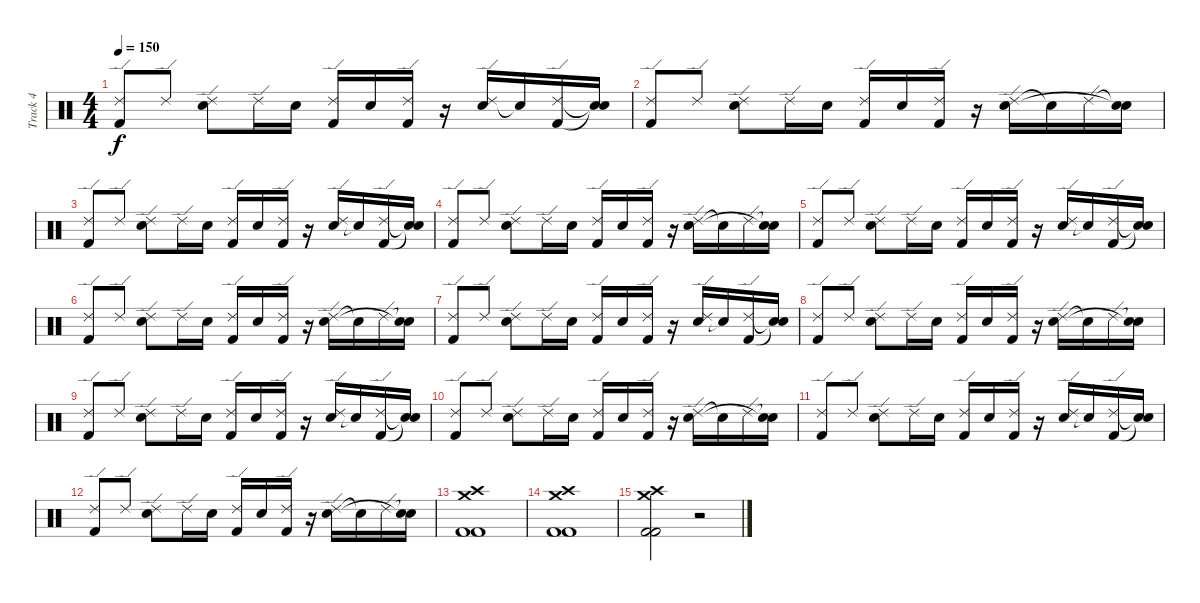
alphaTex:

\track ("Track 4" "Track 4") {instrument percussion}
\staff {score}
\articulation defaults
\ts (4 4)
\tempo 150
\clef neutral
\ks c
("Ride (edge) 2" "Kick (hit) 2").8{dy f} "Ride (edge) 2".8 ("Ride (edge) 2" "Snare (hit) 2").8 "Ride (edge) 2".16 "Snare (hit) 2".16 ("Ride (edge) 2" "Kick (hit) 2").16 "Snare (hit) 2".16 ("Ride (edge) 2" "Kick (hit) 2").16 r.16 ("Ride (edge) 2" "Snare (hit) 2").16 "Snare (hit)"{t}.16 ("Ride (edge) 2" "Kick (hit) 2").16 ("Snare (hit)"{t} "Snare (hit)"{t}).16 |
("Ride (edge) 2" "Kick (hit) 2").8 "Ride (edge) 2".8 ("Ride (edge) 2" "Snare (hit) 2").8 "Ride (edge) 2".16 "Snare (hit) 2".16 ("Ride (edge) 2" "Kick (hit) 2").16 "Snare (hit) 2".16 ("Ride (edge) 2" "Kick (hit) 2").16 r.16 ("Ride (edge) 2" "Snare (hit) 2").16 "Snare (hit)"{t}.16 "Ride (edge) 2".16 ("Snare (hit)"{t} "Snare (hit)"{t}).16 |
("Ride (edge) 2" "Kick (hit) 2").8 "Ride (edge) 2".8 ("Ride (edge) 2" "Snare (hit) 2").8 "Ride (edge) 2".16 "Snare (hit) 2".16 ("Ride (edge) 2" "Kick (hit) 2").16 "Snare (hit) 2".16 ("Ride (edge) 2" "Kick (hit) 2").16 r.16 ("Ride (edge) 2" "Snare (hit) 2").16 "Snare (hit)"{t}.16 ("Ride (edge) 2" "Kick (hit) 2").16 ("Snare (hit)"{t} "Snare (hit)"{t}).16 |
("Ride (edge) 2" "Kick (hit) 2").8 "Ride (edge) 2".8 ("Ride (edge) 2" "Snare (hit) 2").8 "Ride (edge) 2".16 "Snare (hit) 2".16 ("Ride (edge) 2" "Kick (hit) 2").16 "Snare (hit) 2".16 ("Ride (edge) 2" "Kick (hit) 2").16 r.16 ("Ride (edge) 2" "Snare (hit) 2").16 "Snare (hit)"{t}.16 "Ride (edge) 2".16 ("Snare (hit)"{t} "Snare (hit)"{t}).16 |
("Ride (edge) 2" "Kick (hit) 2").8 "Ride (edge) 2".8 ("Ride (edge) 2" "Snare (hit) 2").8 "Ride (edge) 2".16 "Snare (hit) 2".16 ("Ride (edge) 2" "Kick (hit) 2").16 "Snare (hit) 2".16 ("Ride (edge) 2" "Kick (hit) 2").16 r.16 ("Ride (edge) 2" "Snare (hit) 2").16 "Snare (hit)"{t}.16 ("Ride (edge) 2" "Kick (hit) 2").16 ("Snare (hit)"{t} "Snare (hit)"{t}).16 |
("Ride (edge) 2" "Kick (hit) 2").8 "Ride (edge) 2".8 ("Ride (edge) 2" "Snare (hit) 2").8 "Ride (edge) 2".16 "Snare (hit) 2".16 ("Ride (edge) 2" "Kick (hit) 2").16 "Snare (hit) 2".16 ("Ride (edge) 2" "Kick (hit) 2").16 r.16 ("Ride (edge) 2" "Snare (hit) 2").16 "Snare (hit)"{t}.16 "Ride (edge) 2".16 ("Snare (hit)"{t} "Snare (hit)"{t}).16 |
("Ride (edge) 2" "Kick (hit) 2").8 "Ride (edge) 2".8 ("Ride (edge) 2" "Snare (hit) 2").8 "Ride (edge) 2".16 "Snare (hit) 2".16 ("Ride (edge) 2" "Kick (hit) 2").16 "Snare (hit) 2".16 ("Ride (edge) 2" "Kick (hit) 2").16 r.16 ("Ride (edge) 2" "Snare (hit) 2").16 "Snare (hit)"{t}.16 ("Ride (edge) 2" "Kick (hit) 2").16 ("Snare (hit)"{t} "Snare (hit)"{t}).16 |
("Ride (edge) 2" "Kick (hit) 2").8 "Ride (edge) 2".8 ("Ride (edge) 2" "Snare (hit) 2").8 "Ride (edge) 2".16 "Snare (hit) 2".16 ("Ride (edge) 2" "Kick (hit) 2").16 "Snare (hit) 2".16 ("Ride (edge) 2" "Kick (hit) 2").16 r.16 ("Ride (edge) 2" "Snare (hit) 2").16 "Snare (hit)"{t}.16 "Ride (edge) 2".16 ("Snare (hit)"{t} "Snare (hit)"{t}).16 |
("Ride (edge) 2" "Kick (hit) 2").8 "Ride (edge) 2".8 ("Ride (edge) 2" "Snare (hit) 2").8 "Ride (edge) 2".16 "Snare (hit) 2".16 ("Ride (edge) 2" "Kick (hit) 2").16 "Snare (hit) 2".16 ("Ride (edge) 2" "Kick (hit) 2").16 r.16 ("Ride (edge) 2" "Snare (hit) 2").16 "Snare (hit)"{t}.16 ("Ride (edge) 2" "Kick (hit) 2").16 ("Snare (hit)"{t} "Snare (hit)"{t}).16 |
("Ride (edge) 2" "Kick (hit) 2").8 "Ride (edge) 2".8 ("Ride (edge) 2" "Snare (hit) 2").8 "Ride (edge) 2".16 "Snare (hit) 2".16 ("Ride (edge) 2" "Kick (hit) 2").16 "Snare (hit) 2".16 ("Ride (edge) 2" "Kick (hit) 2").16 r.16 ("Ride (edge) 2" "Snare (hit) 2").16 "Snare (hit)"{t}.16 "Ride (edge) 2".16 ("Snare (hit)"{t} "Snare (hit)"{t}).16 |
("Ride (edge) 2" "Kick (hit) 2").8 "Ride (edge) 2".8 ("Ride (edge) 2" "Snare (hit) 2").8 "Ride (edge) 2".16 "Snare (hit) 2".16 ("Ride (edge) 2" "Kick (hit) 2").16 "Snare (hit) 2".16 ("Ride (edge) 2" "Kick (hit) 2").16 r.16 ("Ride (edge) 2" "Snare (hit) 2").16 "Snare (hit)"{t}.16 ("Ride (edge) 2" "Kick (hit) 2").16 ("Snare (hit)"{t} "Snare (hit)"{t}).16 |
("Ride (edge) 2" "Kick (hit) 2").8 "Ride (edge) 2".8 ("Ride (edge) 2" "Snare (hit) 2").8 "Ride (edge) 2".16 "Snare (hit) 2".16 ("Ride (edge) 2" "Kick (hit) 2").16 "Snare (hit) 2".16 ("Ride (edge) 2" "Kick (hit) 2").16 r.16 ("Ride (edge) 2" "Snare (hit) 2").16 "Snare (hit)"{t}.16 "Ride (edge) 2".16 ("Snare (hit)"{t} "Snare (hit)"{t}).16 |
("Crash high (hit)" "Crash medium (hit)" "Kick (hit) 2" "Kick (hit) 2").1 |
("Crash high (hit)" "Crash medium (hit)" "Kick (hit) 2" "Kick (hit) 2").1 |
("Crash high (hit)" "Crash medium (hit)" "Kick (hit) 2" "Kick (hit) 2").2 r.2
